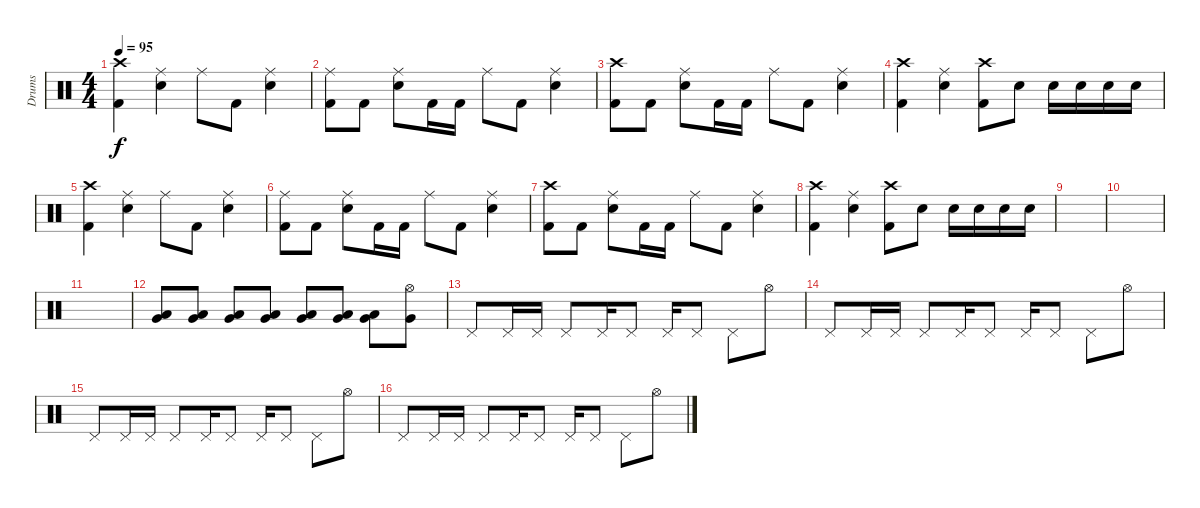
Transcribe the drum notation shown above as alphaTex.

\track ("Drums" "Drums") {instrument percussion}
\staff {score}
\articulation defaults
\ts (4 4)
\tempo 95
\clef neutral
\ks c
("Crash high (hit)" "Kick (hit) 2").4{dy f} ("Ride (middle)" "Snare (hit) 2").4 "Ride (middle)".8 "Kick (hit) 2".8 ("Ride (middle)" "Snare (hit) 2").4 |
("Ride (middle)" "Kick (hit) 2").8 "Kick (hit) 2".8 ("Ride (middle)" "Snare (hit) 2").8 "Kick (hit) 2".16 "Kick (hit) 2".16 "Ride (middle)".8 "Kick (hit) 2".8 ("Ride (middle)" "Snare (hit) 2").4 |
("Crash high (hit)" "Kick (hit) 2").8 "Kick (hit) 2".8 ("Ride (middle)" "Snare (hit) 2").8 "Kick (hit) 2".16 "Kick (hit) 2".16 "Ride (middle)".8 "Kick (hit) 2".8 ("Ride (middle)" "Snare (hit) 2").4 |
("Crash high (hit)" "Kick (hit) 2").4 ("Ride (middle)" "Snare (hit) 2").4 ("Crash high (hit)" "Kick (hit) 2").8 "Snare (hit) 2".8 "Snare (hit) 2".16 "Snare (hit) 2".16 "Snare (hit) 2".16 "Snare (hit) 2".16 |
("Crash high (hit)" "Kick (hit) 2").4 ("Ride (middle)" "Snare (hit) 2").4 "Ride (middle)".8 "Kick (hit) 2".8 ("Ride (middle)" "Snare (hit) 2").4 |
("Ride (middle)" "Kick (hit) 2").8 "Kick (hit) 2".8 ("Ride (middle)" "Snare (hit) 2").8 "Kick (hit) 2".16 "Kick (hit) 2".16 "Ride (middle)".8 "Kick (hit) 2".8 ("Ride (middle)" "Snare (hit) 2").4 |
("Crash high (hit)" "Kick (hit) 2").8 "Kick (hit) 2".8 ("Ride (middle)" "Snare (hit) 2").8 "Kick (hit) 2".16 "Kick (hit) 2".16 "Ride (middle)".8 "Kick (hit) 2".8 ("Ride (middle)" "Snare (hit) 2").4 |
("Crash high (hit)" "Kick (hit) 2").4 ("Ride (middle)" "Snare (hit) 2").4 ("Crash high (hit)" "Kick (hit) 2").8 "Snare (hit) 2".8 "Snare (hit) 2".16 "Snare (hit) 2".16 "Snare (hit) 2".16 "Snare (hit) 2".16 |
|
|
|
("Low Floor Tom (hit)" "Very Low Tom (hit)").8{volume 6} ("Low Floor Tom (hit)" "Very Low Tom (hit)").8{volume 13} ("Low Floor Tom (hit)" "Very Low Tom (hit)").8 ("Low Floor Tom (hit)" "Very Low Tom (hit)").8 ("Low Floor Tom (hit)" "Very Low Tom (hit)").8 ("Low Floor Tom (hit)" "Very Low Tom (hit)").8 ("Low Floor Tom (hit)" "Very Low Tom (hit)").8 ("Hi-Hat (open)" "Very Low Tom (hit)").8 |
"Pedal Hi-Hat (hit)".8 "Pedal Hi-Hat (hit)".16 "Pedal Hi-Hat (hit)".16 "Pedal Hi-Hat (hit)".8 "Pedal Hi-Hat (hit)".16 "Pedal Hi-Hat (hit)".8 "Pedal Hi-Hat (hit)".16 "Pedal Hi-Hat (hit)".8 "Pedal Hi-Hat (hit)".8 "Hi-Hat (open)".8 |
"Pedal Hi-Hat (hit)".8 "Pedal Hi-Hat (hit)".16 "Pedal Hi-Hat (hit)".16 "Pedal Hi-Hat (hit)".8 "Pedal Hi-Hat (hit)".16 "Pedal Hi-Hat (hit)".8 "Pedal Hi-Hat (hit)".16 "Pedal Hi-Hat (hit)".8 "Pedal Hi-Hat (hit)".8 "Hi-Hat (open)".8 |
"Pedal Hi-Hat (hit)".8 "Pedal Hi-Hat (hit)".16 "Pedal Hi-Hat (hit)".16 "Pedal Hi-Hat (hit)".8 "Pedal Hi-Hat (hit)".16 "Pedal Hi-Hat (hit)".8 "Pedal Hi-Hat (hit)".16 "Pedal Hi-Hat (hit)".8 "Pedal Hi-Hat (hit)".8 "Hi-Hat (open)".8 |
"Pedal Hi-Hat (hit)".8 "Pedal Hi-Hat (hit)".16 "Pedal Hi-Hat (hit)".16 "Pedal Hi-Hat (hit)".8 "Pedal Hi-Hat (hit)".16 "Pedal Hi-Hat (hit)".8 "Pedal Hi-Hat (hit)".16 "Pedal Hi-Hat (hit)".8 "Pedal Hi-Hat (hit)".8 "Hi-Hat (open)".8
